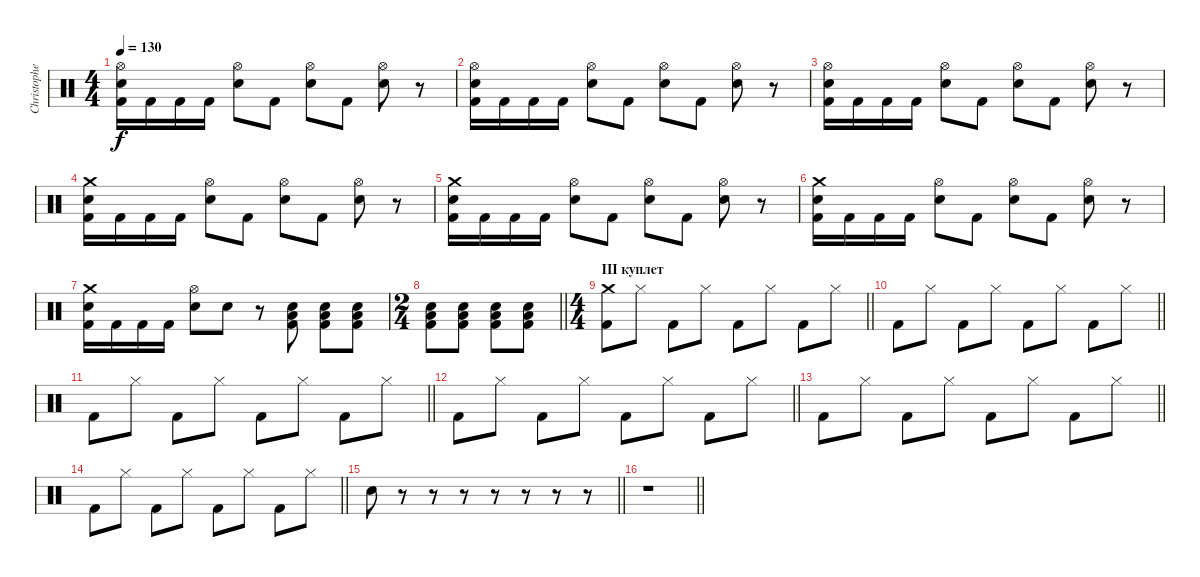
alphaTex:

\track ("Christopher Schneider" "Christophe") {instrument percussion}
\staff {score}
\articulation defaults
\ts (4 4)
\tempo 130
\clef neutral
\ks c
("Electric Snare (hit)" "Kick (hit) 2" "Hi-Hat (open)").16{dy f} "Kick (hit) 2".16 "Kick (hit) 2".16 "Kick (hit) 2".16 ("Electric Snare (hit)" "Hi-Hat (open)").8 "Kick (hit) 2".8 ("Electric Snare (hit)" "Hi-Hat (open)").8 "Kick (hit) 2".8 ("Electric Snare (hit)" "Hi-Hat (open)").8 r.8 |
("Electric Snare (hit)" "Kick (hit) 2" "Hi-Hat (open)").16 "Kick (hit) 2".16 "Kick (hit) 2".16 "Kick (hit) 2".16 ("Electric Snare (hit)" "Hi-Hat (open)").8 "Kick (hit) 2".8 ("Electric Snare (hit)" "Hi-Hat (open)").8 "Kick (hit) 2".8 ("Electric Snare (hit)" "Hi-Hat (open)").8 r.8 |
("Electric Snare (hit)" "Kick (hit) 2" "Hi-Hat (open)").16 "Kick (hit) 2".16 "Kick (hit) 2".16 "Kick (hit) 2".16 ("Electric Snare (hit)" "Hi-Hat (open)").8 "Kick (hit) 2".8 ("Electric Snare (hit)" "Hi-Hat (open)").8 "Kick (hit) 2".8 ("Electric Snare (hit)" "Hi-Hat (open)").8 r.8 |
("Electric Snare (hit)" "Kick (hit) 2" "Crash medium (hit)").16 "Kick (hit) 2".16 "Kick (hit) 2".16 "Kick (hit) 2".16 ("Electric Snare (hit)" "Hi-Hat (open)").8 "Kick (hit) 2".8 ("Electric Snare (hit)" "Hi-Hat (open)").8 "Kick (hit) 2".8 ("Electric Snare (hit)" "Hi-Hat (open)").8 r.8 |
("Electric Snare (hit)" "Kick (hit) 2" "Crash medium (hit)").16 "Kick (hit) 2".16 "Kick (hit) 2".16 "Kick (hit) 2".16 ("Electric Snare (hit)" "Hi-Hat (open)").8 "Kick (hit) 2".8 ("Electric Snare (hit)" "Hi-Hat (open)").8 "Kick (hit) 2".8 ("Electric Snare (hit)" "Hi-Hat (open)").8 r.8 |
("Electric Snare (hit)" "Kick (hit) 2" "Crash medium (hit)").16 "Kick (hit) 2".16 "Kick (hit) 2".16 "Kick (hit) 2".16 ("Electric Snare (hit)" "Hi-Hat (open)").8 "Kick (hit) 2".8 ("Electric Snare (hit)" "Hi-Hat (open)").8 "Kick (hit) 2".8 ("Electric Snare (hit)" "Hi-Hat (open)").8 r.8 |
("Electric Snare (hit)" "Kick (hit) 2" "Crash medium (hit)").16 "Kick (hit) 2".16 "Kick (hit) 2".16 "Kick (hit) 2".16 ("Electric Snare (hit)" "Hi-Hat (open)").8 "Electric Snare (hit)".8 r.8 ("Electric Snare (hit)" "Kick (hit) 2" "Low Tom (hit)").8 ("Electric Snare (hit)" "Kick (hit) 2" "Low Tom (hit)").8 ("Electric Snare (hit)" "Kick (hit) 2" "Low Tom (hit)").8 |
\ts (2 4)
\barLineRight lightlight
("Electric Snare (hit)" "Kick (hit) 2" "Low Tom (hit)").8 ("Electric Snare (hit)" "Kick (hit) 2" "Low Tom (hit)").8 ("Electric Snare (hit)" "Kick (hit) 2" "Low Tom (hit)").8 ("Electric Snare (hit)" "Kick (hit) 2" "Low Tom (hit)").8 |
\ts (4 4)
\section ("" "III куплет")
\barLineRight lightlight
("Crash medium (hit)" "Kick (hit) 2").8 "Hi-Hat (closed)".8 "Kick (hit) 2".8 "Hi-Hat (closed)".8 "Kick (hit) 2".8 "Hi-Hat (closed)".8 "Kick (hit) 2".8 "Hi-Hat (closed)".8 |
\barLineRight lightlight "Kick (hit) 2".8 "Hi-Hat (closed)".8 "Kick (hit) 2".8 "Hi-Hat (closed)".8 "Kick (hit) 2".8 "Hi-Hat (closed)".8 "Kick (hit) 2".8 "Hi-Hat (closed)".8
|
\barLineRight lightlight "Kick (hit) 2".8 "Hi-Hat (closed)".8 "Kick (hit) 2".8 "Hi-Hat (closed)".8 "Kick (hit) 2".8 "Hi-Hat (closed)".8 "Kick (hit) 2".8 "Hi-Hat (closed)".8
|
\barLineRight lightlight "Kick (hit) 2".8 "Hi-Hat (closed)".8 "Kick (hit) 2".8 "Hi-Hat (closed)".8 "Kick (hit) 2".8 "Hi-Hat (closed)".8 "Kick (hit) 2".8 "Hi-Hat (closed)".8
|
\barLineRight lightlight "Kick (hit) 2".8 "Hi-Hat (closed)".8 "Kick (hit) 2".8 "Hi-Hat (closed)".8 "Kick (hit) 2".8 "Hi-Hat (closed)".8 "Kick (hit) 2".8 "Hi-Hat (closed)".8
|
\barLineRight lightlight "Kick (hit) 2".8 "Hi-Hat (closed)".8 "Kick (hit) 2".8 "Hi-Hat (closed)".8 "Kick (hit) 2".8 "Hi-Hat (closed)".8 "Kick (hit) 2".8 "Hi-Hat (closed)".8
|
\barLineRight lightlight "Electric Snare (hit)".8
r.8 r.8 r.8 r.8 r.8 r.8 r.8 |
\barLineRight lightlight
r.1
